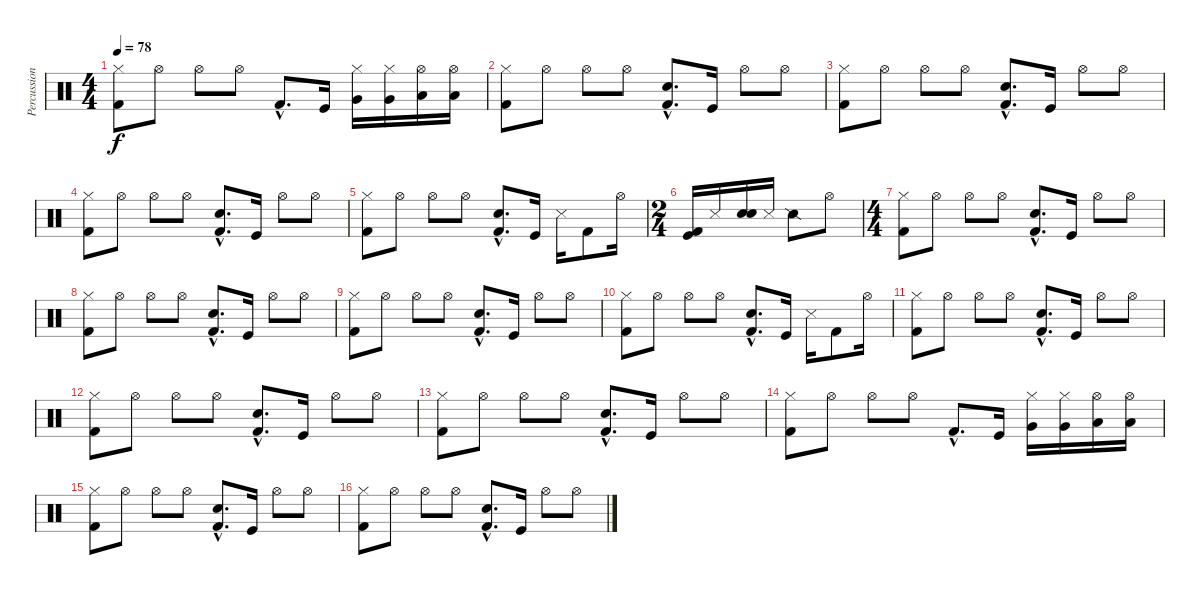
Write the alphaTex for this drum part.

\track ("Percussion" "Percussion") {instrument percussion}
\staff {score}
\articulation defaults
\ts (4 4)
\tempo 78
\clef neutral
\ks c
("Kick (hit) 2" "Hi-Hat (closed)").8{dy f} "Hi-Hat (open)".8 "Hi-Hat (open)".8 "Hi-Hat (open)".8 "Kick (hit) 2"{hac}.8{d} "Kick (hit)".16 ("Very Low Tom (hit)" "Hi-Hat (closed)").16 ("Very Low Tom (hit)" "Hi-Hat (closed)").16 ("Low Tom (hit)" "Hi-Hat (open)").16 ("Low Tom (hit)" "Hi-Hat (open)").16 |
("Kick (hit) 2" "Hi-Hat (closed)").8 "Hi-Hat (open)".8 "Hi-Hat (open)".8 "Hi-Hat (open)".8 ("Kick (hit) 2"{hac} "Electric Snare (hit)"{hac}).8{d} "Kick (hit)".16 "Hi-Hat (open)".8 "Hi-Hat (open)".8 |
("Kick (hit) 2" "Hi-Hat (closed)").8 "Hi-Hat (open)".8 "Hi-Hat (open)".8 "Hi-Hat (open)".8 ("Kick (hit) 2"{hac} "Electric Snare (hit)"{hac}).8{d} "Kick (hit)".16 "Hi-Hat (open)".8 "Hi-Hat (open)".8 |
("Kick (hit) 2" "Hi-Hat (closed)").8 "Hi-Hat (open)".8 "Hi-Hat (open)".8 "Hi-Hat (open)".8 ("Kick (hit) 2"{hac} "Electric Snare (hit)"{hac}).8{d} "Kick (hit)".16 "Hi-Hat (open)".8 "Hi-Hat (open)".8 |
("Kick (hit) 2" "Hi-Hat (closed)").8 "Hi-Hat (open)".8 "Hi-Hat (open)".8 "Hi-Hat (open)".8 ("Kick (hit) 2"{hac} "Electric Snare (hit)"{hac}).8{d} "Kick (hit)".16 "Snare (side stick) 3".16 "Kick (hit) 2".8 "Hi-Hat (open)".16 |
\ts (2 4)
("Kick (hit) 2" "Kick (hit)").16 "Snare (side stick) 3".16 ("Snare (hit) 2" "Electric Snare (hit)").16 "Snare (side stick) 3".16 "Snare (side stick) 2".8 "Hi-Hat (open)".8 |
\ts (4 4)
("Kick (hit) 2" "Hi-Hat (closed)").8 "Hi-Hat (open)".8 "Hi-Hat (open)".8 "Hi-Hat (open)".8 ("Kick (hit) 2"{hac} "Electric Snare (hit)"{hac}).8{d} "Kick (hit)".16 "Hi-Hat (open)".8 "Hi-Hat (open)".8 |
("Kick (hit) 2" "Hi-Hat (closed)").8 "Hi-Hat (open)".8 "Hi-Hat (open)".8 "Hi-Hat (open)".8 ("Kick (hit) 2"{hac} "Electric Snare (hit)"{hac}).8{d} "Kick (hit)".16 "Hi-Hat (open)".8 "Hi-Hat (open)".8 |
("Kick (hit) 2" "Hi-Hat (closed)").8 "Hi-Hat (open)".8 "Hi-Hat (open)".8 "Hi-Hat (open)".8 ("Kick (hit) 2"{hac} "Electric Snare (hit)"{hac}).8{d} "Kick (hit)".16 "Hi-Hat (open)".8 "Hi-Hat (open)".8 |
("Kick (hit) 2" "Hi-Hat (closed)").8 "Hi-Hat (open)".8 "Hi-Hat (open)".8 "Hi-Hat (open)".8 ("Kick (hit) 2"{hac} "Electric Snare (hit)"{hac}).8{d} "Kick (hit)".16 "Snare (side stick) 3".16 "Kick (hit) 2".8 "Hi-Hat (open)".16 |
("Kick (hit) 2" "Hi-Hat (closed)").8 "Hi-Hat (open)".8 "Hi-Hat (open)".8 "Hi-Hat (open)".8 ("Kick (hit) 2"{hac} "Electric Snare (hit)"{hac}).8{d} "Kick (hit)".16 "Hi-Hat (open)".8 "Hi-Hat (open)".8 |
("Kick (hit) 2" "Hi-Hat (closed)").8 "Hi-Hat (open)".8 "Hi-Hat (open)".8 "Hi-Hat (open)".8 ("Kick (hit) 2"{hac} "Electric Snare (hit)"{hac}).8{d} "Kick (hit)".16 "Hi-Hat (open)".8 "Hi-Hat (open)".8 |
("Kick (hit) 2" "Hi-Hat (closed)").8 "Hi-Hat (open)".8 "Hi-Hat (open)".8 "Hi-Hat (open)".8 ("Kick (hit) 2"{hac} "Electric Snare (hit)"{hac}).8{d} "Kick (hit)".16 "Hi-Hat (open)".8 "Hi-Hat (open)".8 |
("Kick (hit) 2" "Hi-Hat (closed)").8 "Hi-Hat (open)".8 "Hi-Hat (open)".8 "Hi-Hat (open)".8 "Kick (hit) 2"{hac}.8{d} "Kick (hit)".16 ("Very Low Tom (hit)" "Hi-Hat (closed)").16 ("Very Low Tom (hit)" "Hi-Hat (closed)").16 ("Low Tom (hit)" "Hi-Hat (open)").16 ("Low Tom (hit)" "Hi-Hat (open)").16 |
("Kick (hit) 2" "Hi-Hat (closed)").8 "Hi-Hat (open)".8 "Hi-Hat (open)".8 "Hi-Hat (open)".8 ("Kick (hit) 2"{hac} "Electric Snare (hit)"{hac}).8{d} "Kick (hit)".16 "Hi-Hat (open)".8 "Hi-Hat (open)".8 |
("Kick (hit) 2" "Hi-Hat (closed)").8 "Hi-Hat (open)".8 "Hi-Hat (open)".8 "Hi-Hat (open)".8 ("Kick (hit) 2"{hac} "Electric Snare (hit)"{hac}).8{d} "Kick (hit)".16 "Hi-Hat (open)".8 "Hi-Hat (open)".8
